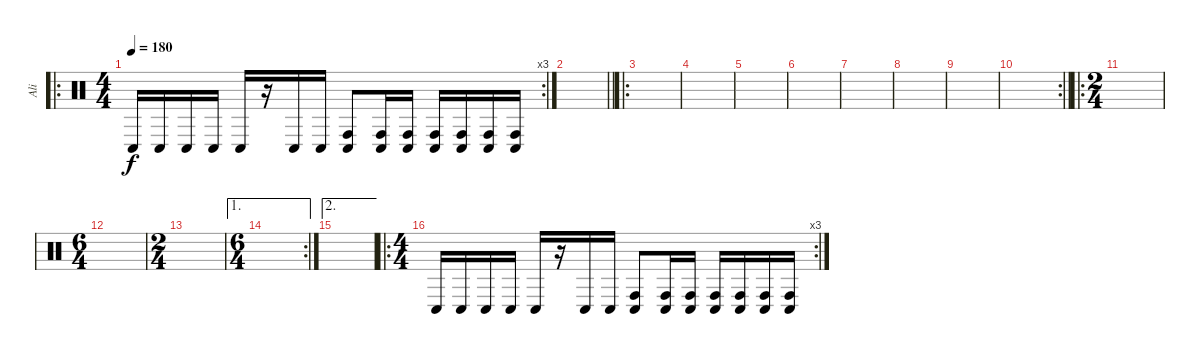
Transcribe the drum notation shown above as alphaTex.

\track ("Ali" "Ali") {instrument percussion}
\staff {score}
\articulation defaults
\ro
\rc 3
\ts (4 4)
\tempo 180
\clef neutral
\ks c "Conga low (hit)".16{dy f} "Conga low (hit)".16 "Conga low (hit)".16 "Conga low (hit)".16 "Conga low (hit)".16
r.16 "Conga low (hit)".16 "Conga low (hit)".16 ("Conga high (hit)" "Conga low (hit)").8 ("Conga high (hit)" "Conga low (hit)").16 ("Conga high (hit)" "Conga low (hit)").16 ("Conga high (hit)" "Conga low (hit)").16 ("Conga high (hit)" "Conga low (hit)").16 ("Conga high (hit)" "Conga low (hit)").16 ("Conga high (hit)" "Conga low (hit)").16 |
\barLineRight lightlight
|
\ro
\section ("" "")
|
|
|
|
|
|
|
\rc 2
\barLineRight lightlight
|
\ro
\ts (2 4)
\section ("" "")
|
\ts (6 4)
|
\ts (2 4)
|
\ae 1
\rc 2
\ts (6 4)
|
\ae 2
|
\ro
\rc 3
\ts (4 4)
"Conga low (hit)".16 "Conga low (hit)".16 "Conga low (hit)".16 "Conga low (hit)".16 "Conga low (hit)".16 r.16 "Conga low (hit)".16 "Conga low (hit)".16 ("Conga high (hit)" "Conga low (hit)").8 ("Conga high (hit)" "Conga low (hit)").16 ("Conga high (hit)" "Conga low (hit)").16 ("Conga high (hit)" "Conga low (hit)").16 ("Conga high (hit)" "Conga low (hit)").16 ("Conga high (hit)" "Conga low (hit)").16 ("Conga high (hit)" "Conga low (hit)").16
